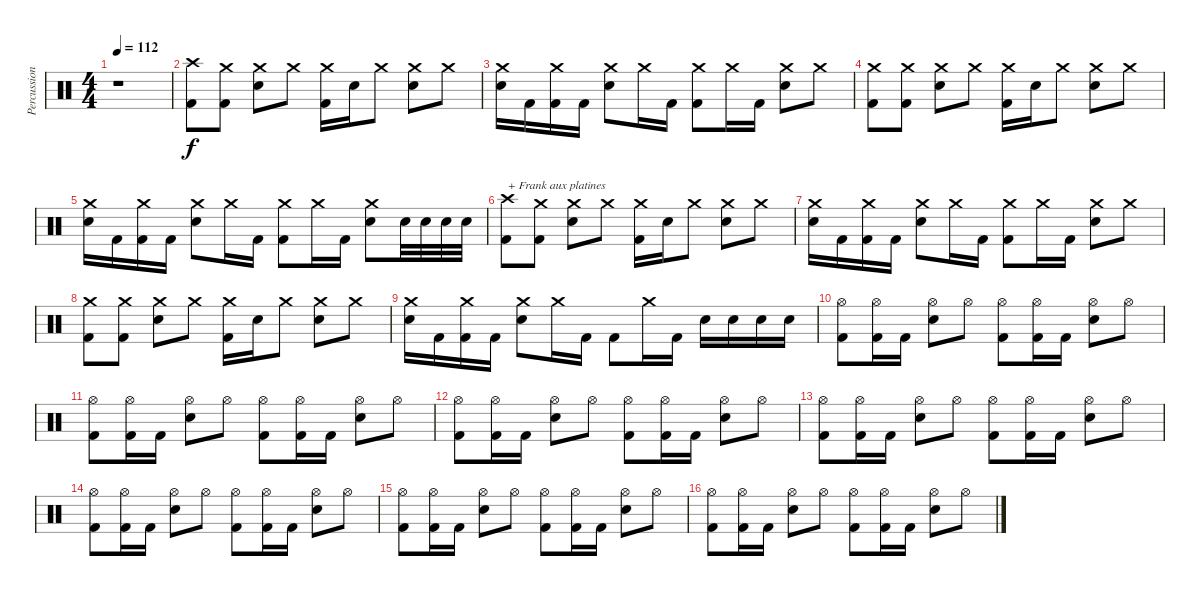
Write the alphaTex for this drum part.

\track ("Percussions" "Percussion") {instrument percussion}
\staff {score}
\articulation defaults
\ts (4 4)
\tempo 112
\clef neutral
\ks c
r.1{dy f} |
("Crash high (hit)" "Kick (hit) 2").8 ("Crash medium (hit)" "Kick (hit) 2").8 ("Crash medium (hit)" "Electric Snare (hit)").8 "Crash medium (hit)".8 ("Crash medium (hit)" "Kick (hit) 2").16 "Electric Snare (hit)".16 "Crash medium (hit)".8 ("Crash medium (hit)" "Electric Snare (hit)").8 "Crash medium (hit)".8 |
("Crash medium (hit)" "Electric Snare (hit)").16 "Kick (hit) 2".16 ("Crash medium (hit)" "Kick (hit) 2").16 "Kick (hit) 2".16 ("Crash medium (hit)" "Electric Snare (hit)").8 "Crash medium (hit)".16 "Kick (hit) 2".16 ("Crash medium (hit)" "Kick (hit) 2").8 "Crash medium (hit)".16 "Kick (hit) 2".16 ("Crash medium (hit)" "Electric Snare (hit)").8 "Crash medium (hit)".8 |
("Crash medium (hit)" "Kick (hit) 2").8 ("Crash medium (hit)" "Kick (hit) 2").8 ("Crash medium (hit)" "Electric Snare (hit)").8 "Crash medium (hit)".8 ("Crash medium (hit)" "Kick (hit) 2").16 "Electric Snare (hit)".16 "Crash medium (hit)".8 ("Crash medium (hit)" "Electric Snare (hit)").8 "Crash medium (hit)".8 |
("Crash medium (hit)" "Electric Snare (hit)").16 "Kick (hit) 2".16 ("Crash medium (hit)" "Kick (hit) 2").16 "Kick (hit) 2".16 ("Crash medium (hit)" "Electric Snare (hit)").8 "Crash medium (hit)".16 "Kick (hit) 2".16 ("Crash medium (hit)" "Kick (hit) 2").8 "Crash medium (hit)".16 "Kick (hit) 2".16 ("Crash medium (hit)" "Electric Snare (hit)").8 "Electric Snare (hit)".32 "Electric Snare (hit)".32 "Electric Snare (hit)".32 "Electric Snare (hit)".32 |
("Crash high (hit)" "Kick (hit) 2").8{txt "+ Frank aux platines"} ("Crash medium (hit)" "Kick (hit) 2").8 ("Crash medium (hit)" "Electric Snare (hit)").8 "Crash medium (hit)".8 ("Crash medium (hit)" "Kick (hit) 2").16 "Electric Snare (hit)".16 "Crash medium (hit)".8 ("Crash medium (hit)" "Electric Snare (hit)").8 "Crash medium (hit)".8 |
("Crash medium (hit)" "Electric Snare (hit)").16 "Kick (hit) 2".16 ("Crash medium (hit)" "Kick (hit) 2").16 "Kick (hit) 2".16 ("Crash medium (hit)" "Electric Snare (hit)").8 "Crash medium (hit)".16 "Kick (hit) 2".16 ("Crash medium (hit)" "Kick (hit) 2").8 "Crash medium (hit)".16 "Kick (hit) 2".16 ("Crash medium (hit)" "Electric Snare (hit)").8 "Crash medium (hit)".8 |
("Crash medium (hit)" "Kick (hit) 2").8 ("Crash medium (hit)" "Kick (hit) 2").8 ("Crash medium (hit)" "Electric Snare (hit)").8 "Crash medium (hit)".8 ("Crash medium (hit)" "Kick (hit) 2").16 "Electric Snare (hit)".16 "Crash medium (hit)".8 ("Crash medium (hit)" "Electric Snare (hit)").8 "Crash medium (hit)".8 |
("Crash medium (hit)" "Electric Snare (hit)").16 "Kick (hit) 2".16 ("Crash medium (hit)" "Kick (hit) 2").16 "Kick (hit) 2".16 ("Crash medium (hit)" "Electric Snare (hit)").8 "Crash medium (hit)".16 "Kick (hit) 2".16 "Kick (hit) 2".8 "Crash medium (hit)".16 "Kick (hit) 2".16 "Electric Snare (hit)".16 "Electric Snare (hit)".16 "Electric Snare (hit)".16 "Electric Snare (hit)".16 |
("Hi-Hat (open)" "Kick (hit) 2").8 ("Hi-Hat (open)" "Kick (hit) 2").16 "Kick (hit) 2".16 ("Hi-Hat (open)" "Electric Snare (hit)").8 "Hi-Hat (open)".8 ("Hi-Hat (open)" "Kick (hit) 2").8 ("Hi-Hat (open)" "Kick (hit) 2").16 "Kick (hit) 2".16 ("Hi-Hat (open)" "Electric Snare (hit)").8 "Hi-Hat (open)".8 |
("Hi-Hat (open)" "Kick (hit) 2").8 ("Hi-Hat (open)" "Kick (hit) 2").16 "Kick (hit) 2".16 ("Hi-Hat (open)" "Electric Snare (hit)").8 "Hi-Hat (open)".8 ("Hi-Hat (open)" "Kick (hit) 2").8 ("Hi-Hat (open)" "Kick (hit) 2").16 "Kick (hit) 2".16 ("Hi-Hat (open)" "Electric Snare (hit)").8 "Hi-Hat (open)".8 |
("Hi-Hat (open)" "Kick (hit) 2").8 ("Hi-Hat (open)" "Kick (hit) 2").16 "Kick (hit) 2".16 ("Hi-Hat (open)" "Electric Snare (hit)").8 "Hi-Hat (open)".8 ("Hi-Hat (open)" "Kick (hit) 2").8 ("Hi-Hat (open)" "Kick (hit) 2").16 "Kick (hit) 2".16 ("Hi-Hat (open)" "Electric Snare (hit)").8 "Hi-Hat (open)".8 |
("Hi-Hat (open)" "Kick (hit) 2").8 ("Hi-Hat (open)" "Kick (hit) 2").16 "Kick (hit) 2".16 ("Hi-Hat (open)" "Electric Snare (hit)").8 "Hi-Hat (open)".8 ("Hi-Hat (open)" "Kick (hit) 2").8 ("Hi-Hat (open)" "Kick (hit) 2").16 "Kick (hit) 2".16 ("Hi-Hat (open)" "Electric Snare (hit)").8 "Hi-Hat (open)".8 |
("Hi-Hat (open)" "Kick (hit) 2").8 ("Hi-Hat (open)" "Kick (hit) 2").16 "Kick (hit) 2".16 ("Hi-Hat (open)" "Electric Snare (hit)").8 "Hi-Hat (open)".8 ("Hi-Hat (open)" "Kick (hit) 2").8 ("Hi-Hat (open)" "Kick (hit) 2").16 "Kick (hit) 2".16 ("Hi-Hat (open)" "Electric Snare (hit)").8 "Hi-Hat (open)".8 |
("Hi-Hat (open)" "Kick (hit) 2").8 ("Hi-Hat (open)" "Kick (hit) 2").16 "Kick (hit) 2".16 ("Hi-Hat (open)" "Electric Snare (hit)").8 "Hi-Hat (open)".8 ("Hi-Hat (open)" "Kick (hit) 2").8 ("Hi-Hat (open)" "Kick (hit) 2").16 "Kick (hit) 2".16 ("Hi-Hat (open)" "Electric Snare (hit)").8 "Hi-Hat (open)".8 |
("Hi-Hat (open)" "Kick (hit) 2").8 ("Hi-Hat (open)" "Kick (hit) 2").16 "Kick (hit) 2".16 ("Hi-Hat (open)" "Electric Snare (hit)").8 "Hi-Hat (open)".8 ("Hi-Hat (open)" "Kick (hit) 2").8 ("Hi-Hat (open)" "Kick (hit) 2").16 "Kick (hit) 2".16 ("Hi-Hat (open)" "Electric Snare (hit)").8 "Hi-Hat (open)".8
